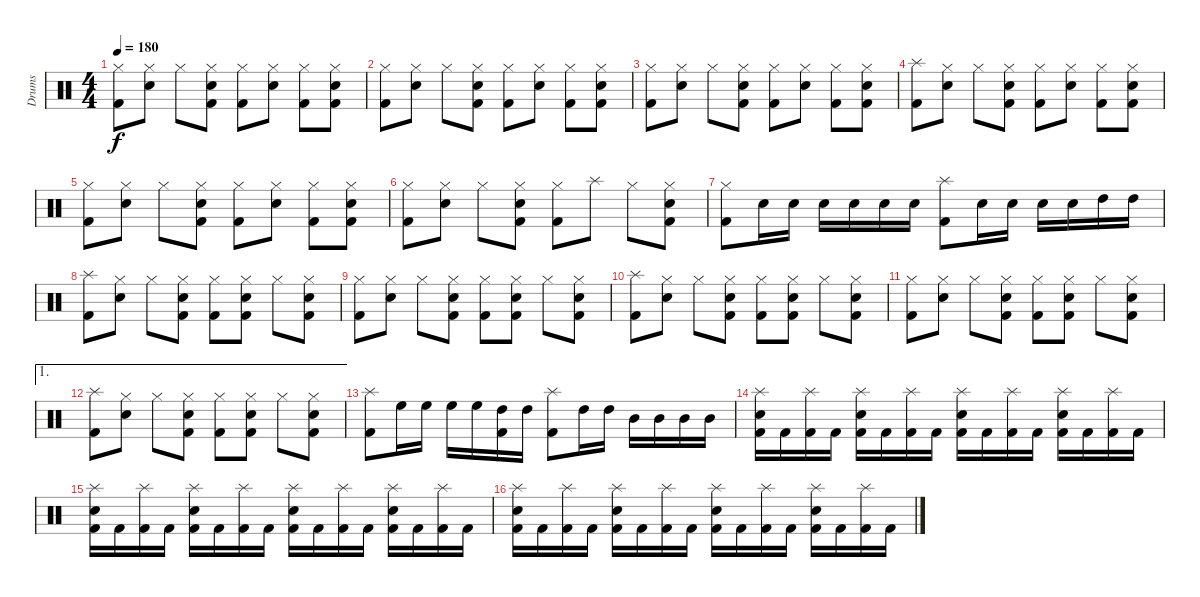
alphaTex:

\track ("Drums" "Drums") {instrument percussion}
\staff {score}
\articulation defaults
\ts (4 4)
\tempo 180
\clef neutral
\ks c
("Hi-Hat (closed)" "Kick (hit) 2").8{dy f} ("Hi-Hat (closed)" "Snare (hit) 2").8 "Hi-Hat (closed)".8 ("Hi-Hat (closed)" "Snare (hit) 2" "Kick (hit) 2").8 ("Hi-Hat (closed)" "Kick (hit) 2").8 ("Hi-Hat (closed)" "Snare (hit) 2").8 ("Hi-Hat (closed)" "Kick (hit) 2").8 ("Hi-Hat (closed)" "Snare (hit) 2" "Kick (hit) 2").8 |
("Hi-Hat (closed)" "Kick (hit) 2").8 ("Hi-Hat (closed)" "Snare (hit) 2").8 "Hi-Hat (closed)".8 ("Hi-Hat (closed)" "Snare (hit) 2" "Kick (hit) 2").8 ("Hi-Hat (closed)" "Kick (hit) 2").8 ("Hi-Hat (closed)" "Snare (hit) 2").8 ("Hi-Hat (closed)" "Kick (hit) 2").8 ("Hi-Hat (closed)" "Snare (hit) 2" "Kick (hit) 2").8 |
("Hi-Hat (closed)" "Kick (hit) 2").8 ("Hi-Hat (closed)" "Snare (hit) 2").8 "Hi-Hat (closed)".8 ("Hi-Hat (closed)" "Snare (hit) 2" "Kick (hit) 2").8 ("Hi-Hat (closed)" "Kick (hit) 2").8 ("Hi-Hat (closed)" "Snare (hit) 2").8 ("Hi-Hat (closed)" "Kick (hit) 2").8 ("Hi-Hat (closed)" "Snare (hit) 2" "Kick (hit) 2").8 |
("Splash (hit)" "Kick (hit) 2").8 ("Hi-Hat (closed)" "Snare (hit) 2").8 "Hi-Hat (closed)".8 ("Hi-Hat (closed)" "Snare (hit) 2" "Kick (hit) 2").8 ("Hi-Hat (closed)" "Kick (hit) 2").8 ("Hi-Hat (closed)" "Snare (hit) 2").8 ("Hi-Hat (closed)" "Kick (hit) 2").8 ("Hi-Hat (closed)" "Snare (hit) 2" "Kick (hit) 2").8 |
("Hi-Hat (closed)" "Kick (hit) 2").8 ("Hi-Hat (closed)" "Snare (hit) 2").8 "Hi-Hat (closed)".8 ("Hi-Hat (closed)" "Snare (hit) 2" "Kick (hit) 2").8 ("Hi-Hat (closed)" "Kick (hit) 2").8 ("Hi-Hat (closed)" "Snare (hit) 2").8 ("Hi-Hat (closed)" "Kick (hit) 2").8 ("Hi-Hat (closed)" "Snare (hit) 2" "Kick (hit) 2").8 |
("Hi-Hat (closed)" "Kick (hit) 2").8 ("Hi-Hat (closed)" "Snare (hit) 2").8 "Hi-Hat (closed)".8 ("Hi-Hat (closed)" "Snare (hit) 2" "Kick (hit) 2").8 ("Hi-Hat (closed)" "Kick (hit) 2").8 "Splash (hit)".8 "Hi-Hat (closed)".8 ("Hi-Hat (closed)" "Snare (hit) 2" "Kick (hit) 2").8 |
("Hi-Hat (closed)" "Kick (hit) 2").8 "Snare (hit) 2".16 "Snare (hit) 2".16 "Snare (hit) 2".16 "Snare (hit) 2".16 "Snare (hit) 2".16 "Snare (hit) 2".16 ("Splash (hit)" "Kick (hit) 2").8 "Snare (hit) 2".16 "Snare (hit) 2".16 "Snare (hit) 2".16 "Snare (hit) 2".16 "High Tom (hit)".16 "High Tom (hit)".16 |
("Splash (hit)" "Kick (hit) 2").8 ("Hi-Hat (closed)" "Snare (hit) 2").8 "Hi-Hat (closed)".8 ("Hi-Hat (closed)" "Snare (hit) 2" "Kick (hit) 2").8 ("Hi-Hat (closed)" "Kick (hit) 2").8 ("Hi-Hat (closed)" "Snare (hit) 2" "Kick (hit) 2").8 "Hi-Hat (closed)".8 ("Hi-Hat (closed)" "Snare (hit) 2" "Kick (hit) 2").8 |
("Hi-Hat (closed)" "Kick (hit) 2").8 ("Hi-Hat (closed)" "Snare (hit) 2").8 "Hi-Hat (closed)".8 ("Hi-Hat (closed)" "Snare (hit) 2" "Kick (hit) 2").8 ("Hi-Hat (closed)" "Kick (hit) 2").8 ("Hi-Hat (closed)" "Snare (hit) 2" "Kick (hit) 2").8 "Hi-Hat (closed)".8 ("Hi-Hat (closed)" "Snare (hit) 2" "Kick (hit) 2").8 |
("Splash (hit)" "Kick (hit) 2").8 ("Hi-Hat (closed)" "Snare (hit) 2").8 "Hi-Hat (closed)".8 ("Hi-Hat (closed)" "Snare (hit) 2" "Kick (hit) 2").8 ("Hi-Hat (closed)" "Kick (hit) 2").8 ("Hi-Hat (closed)" "Snare (hit) 2" "Kick (hit) 2").8 "Hi-Hat (closed)".8 ("Hi-Hat (closed)" "Snare (hit) 2" "Kick (hit) 2").8 |
("Hi-Hat (closed)" "Kick (hit) 2").8 ("Hi-Hat (closed)" "Snare (hit) 2").8 "Hi-Hat (closed)".8 ("Hi-Hat (closed)" "Snare (hit) 2" "Kick (hit) 2").8 ("Hi-Hat (closed)" "Kick (hit) 2").8 ("Hi-Hat (closed)" "Snare (hit) 2" "Kick (hit) 2").8 "Hi-Hat (closed)".8 ("Hi-Hat (closed)" "Snare (hit) 2" "Kick (hit) 2").8 |
\ae 1
("Splash (hit)" "Kick (hit) 2").8 ("Hi-Hat (closed)" "Snare (hit) 2").8 "Hi-Hat (closed)".8 ("Hi-Hat (closed)" "Snare (hit) 2" "Kick (hit) 2").8 ("Hi-Hat (closed)" "Kick (hit) 2").8 ("Hi-Hat (closed)" "Snare (hit) 2" "Kick (hit) 2").8 "Hi-Hat (closed)".8 ("Hi-Hat (closed)" "Snare (hit) 2" "Kick (hit) 2").8 |
("Splash (hit)" "Kick (hit) 2").8 "High Floor Tom (hit)".16 "High Floor Tom (hit)".16 "High Floor Tom (hit)".16 "High Floor Tom (hit)".16 ("High Tom (hit)" "Kick (hit) 2").16 "High Tom (hit)".16 ("Splash (hit)" "Kick (hit) 2").8 "High Tom (hit)".16 "High Tom (hit)".16 "Mid Tom (hit)".16 "Mid Tom (hit)".16 "Mid Tom (hit)".16 "Mid Tom (hit)".16 |
("Splash (hit)" "Snare (hit) 2" "Kick (hit) 2").16 "Kick (hit) 2".16 ("Splash (hit)" "Kick (hit) 2").16 "Kick (hit) 2".16 ("Splash (hit)" "Snare (hit) 2" "Kick (hit) 2").16 "Kick (hit) 2".16 ("Splash (hit)" "Kick (hit) 2").16 "Kick (hit) 2".16 ("Splash (hit)" "Snare (hit) 2" "Kick (hit) 2").16 "Kick (hit) 2".16 ("Splash (hit)" "Kick (hit) 2").16 "Kick (hit) 2".16 ("Splash (hit)" "Snare (hit) 2" "Kick (hit) 2").16 "Kick (hit) 2".16 ("Splash (hit)" "Kick (hit) 2").16 "Kick (hit) 2".16 |
("Splash (hit)" "Snare (hit) 2" "Kick (hit) 2").16 "Kick (hit) 2".16 ("Splash (hit)" "Kick (hit) 2").16 "Kick (hit) 2".16 ("Splash (hit)" "Snare (hit) 2" "Kick (hit) 2").16 "Kick (hit) 2".16 ("Splash (hit)" "Kick (hit) 2").16 "Kick (hit) 2".16 ("Splash (hit)" "Snare (hit) 2" "Kick (hit) 2").16 "Kick (hit) 2".16 ("Splash (hit)" "Kick (hit) 2").16 "Kick (hit) 2".16 ("Splash (hit)" "Snare (hit) 2" "Kick (hit) 2").16 "Kick (hit) 2".16 ("Splash (hit)" "Kick (hit) 2").16 "Kick (hit) 2".16 |
("Splash (hit)" "Snare (hit) 2" "Kick (hit) 2").16 "Kick (hit) 2".16 ("Splash (hit)" "Kick (hit) 2").16 "Kick (hit) 2".16 ("Splash (hit)" "Snare (hit) 2" "Kick (hit) 2").16 "Kick (hit) 2".16 ("Splash (hit)" "Kick (hit) 2").16 "Kick (hit) 2".16 ("Splash (hit)" "Snare (hit) 2" "Kick (hit) 2").16 "Kick (hit) 2".16 ("Splash (hit)" "Kick (hit) 2").16 "Kick (hit) 2".16 ("Splash (hit)" "Snare (hit) 2" "Kick (hit) 2").16 "Kick (hit) 2".16 ("Splash (hit)" "Kick (hit) 2").16 "Kick (hit) 2".16
